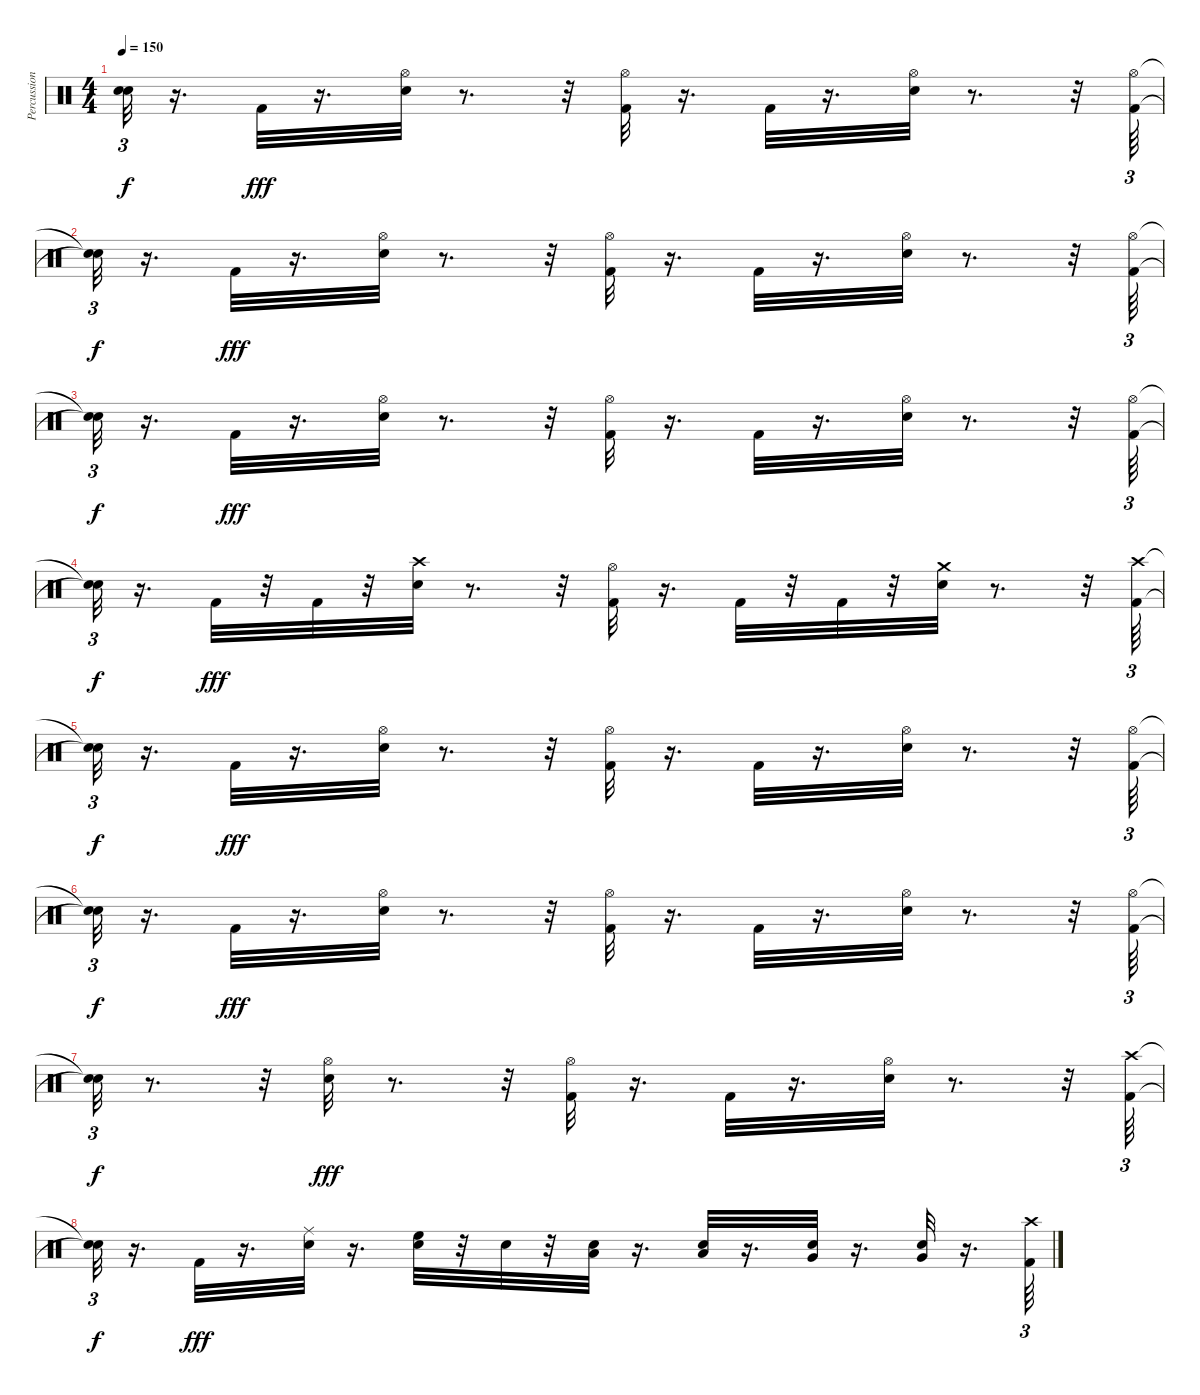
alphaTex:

\track ("Percussion" "Percussion") {instrument percussion}
\staff {score}
\articulation defaults
\ts (4 4)
\tempo 150
\clef neutral
\ks c
("Snare (hit)"{t} "Snare (hit)"{t}).32{tu (3 2) dy f} r.16{d} "Kick (hit) 2".32{dy fff} r.16{d} ("Electric Snare (hit)" "Hi-Hat (open)").32 r.8{d} r.32 ("Hi-Hat (open)" "Kick (hit) 2").32 r.16{d} "Kick (hit) 2".32 r.16{d} ("Electric Snare (hit)" "Hi-Hat (open)").32 r.8{d} r.32 ("Hi-Hat (open)" "Kick (hit) 2").64{tu (3 2)} |
("Snare (hit)"{t} "Snare (hit)"{t}).32{tu (3 2) dy f} r.16{d} "Kick (hit) 2".32{dy fff} r.16{d} ("Electric Snare (hit)" "Hi-Hat (open)").32 r.8{d} r.32 ("Kick (hit) 2" "Hi-Hat (open)").32 r.16{d} "Kick (hit) 2".32 r.16{d} ("Electric Snare (hit)" "Hi-Hat (open)").32 r.8{d} r.32 ("Kick (hit) 2" "Hi-Hat (open)").64{tu (3 2)} |
("Snare (hit)"{t} "Snare (hit)"{t}).32{tu (3 2) dy f} r.16{d} "Kick (hit) 2".32{dy fff} r.16{d} ("Electric Snare (hit)" "Hi-Hat (open)").32 r.8{d} r.32 ("Hi-Hat (open)" "Kick (hit) 2").32 r.16{d} "Kick (hit) 2".32 r.16{d} ("Electric Snare (hit)" "Hi-Hat (open)").32 r.8{d} r.32 ("Hi-Hat (open)" "Kick (hit) 2").64{tu (3 2)} |
("Snare (hit)"{t} "Snare (hit)"{t}).32{tu (3 2) dy f} r.16{d} "Kick (hit) 2".32{dy fff} r.32 "Kick (hit) 2".32 r.32 ("Electric Snare (hit)" "Crash high (hit)").32 r.8{d} r.32 ("Kick (hit) 2" "Hi-Hat (open)").32 r.16{d} "Kick (hit) 2".32 r.32 "Kick (hit) 2".32 r.32 ("Electric Snare (hit)" "Crash medium (hit)").32 r.8{d} r.32 ("Kick (hit) 2" "Crash high (hit)").64{tu (3 2)} |
("Snare (hit)"{t} "Snare (hit)"{t}).32{tu (3 2) dy f} r.16{d} "Kick (hit) 2".32{dy fff} r.16{d} ("Electric Snare (hit)" "Hi-Hat (open)").32 r.8{d} r.32 ("Hi-Hat (open)" "Kick (hit) 2").32 r.16{d} "Kick (hit) 2".32 r.16{d} ("Electric Snare (hit)" "Hi-Hat (open)").32 r.8{d} r.32 ("Hi-Hat (open)" "Kick (hit) 2").64{tu (3 2)} |
("Snare (hit)"{t} "Snare (hit)"{t}).32{tu (3 2) dy f} r.16{d} "Kick (hit) 2".32{dy fff} r.16{d} ("Electric Snare (hit)" "Hi-Hat (open)").32 r.8{d} r.32 ("Kick (hit) 2" "Hi-Hat (open)").32 r.16{d} "Kick (hit) 2".32 r.16{d} ("Electric Snare (hit)" "Hi-Hat (open)").32 r.8{d} r.32 ("Hi-Hat (open)" "Kick (hit) 2").64{tu (3 2)} |
("Snare (hit)"{t} "Snare (hit)"{t}).32{tu (3 2) dy f} r.8{d} r.32 ("Hi-Hat (open)" "Electric Snare (hit)").32{dy fff} r.8{d} r.32 ("Hi-Hat (open)" "Kick (hit) 2").32 r.16{d} "Kick (hit) 2".32 r.16{d} ("Hi-Hat (open)" "Electric Snare (hit)").32 r.8{d} r.32 ("Crash high (hit)" "Kick (hit) 2").64{tu (3 2)} |
("Snare (hit)"{t} "Snare (hit)"{t}).32{tu (3 2) dy f} r.16{d} "Kick (hit) 2".32{dy fff} r.16{d} ("Electric Snare (hit)" "Ride (middle)").32 r.16{d} ("Electric Snare (hit)" "High Floor Tom (hit)").32 r.32 "Snare (hit) 2".32 r.32 ("Electric Snare (hit)" "Low Tom (hit)").32 r.16{d} ("Electric Snare (hit)" "Low Tom (hit)").32 r.16{d} ("Electric Snare (hit)" "Very Low Tom (hit)").32 r.16{d} ("Electric Snare (hit)" "Very Low Tom (hit)").32 r.16{d} ("Crash high (hit)" "Kick (hit) 2").64{tu (3 2)}
